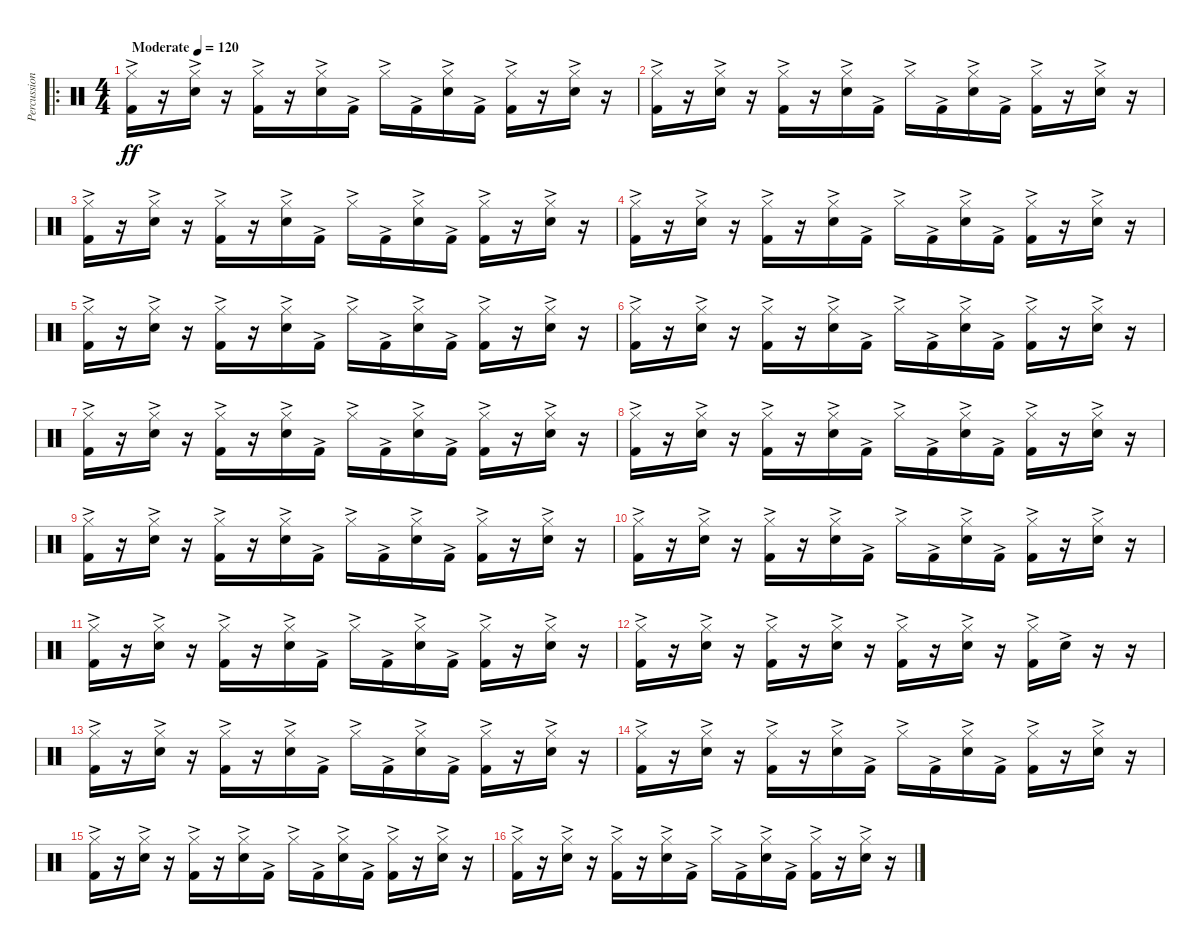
\track ("Percussion" "Percussion") {instrument percussion}
\staff {score}
\articulation defaults
\ro
\ts (4 4)
\tempo (120 "Moderate")
\clef neutral
\ks c
("Hi-Hat (closed)"{ac} "Kick (hit) 2"{ac}).16{dy ff} r.16 ("Hi-Hat (closed)"{ac} "Snare (hit) 2"{ac}).16 r.16 ("Hi-Hat (closed)"{ac} "Kick (hit) 2"{ac}).16 r.16 ("Hi-Hat (closed)"{ac} "Snare (hit) 2"{ac}).16 "Kick (hit) 2"{ac}.16 "Hi-Hat (closed)"{ac}.16 "Kick (hit) 2"{ac}.16 ("Hi-Hat (closed)"{ac} "Snare (hit) 2"{ac}).16 "Kick (hit) 2"{ac}.16 ("Hi-Hat (closed)"{ac} "Kick (hit) 2"{ac}).16 r.16 ("Hi-Hat (closed)"{ac} "Snare (hit) 2"{ac}).16 r.16 |
("Hi-Hat (closed)"{ac} "Kick (hit) 2"{ac}).16 r.16 ("Hi-Hat (closed)"{ac} "Snare (hit) 2"{ac}).16 r.16 ("Hi-Hat (closed)"{ac} "Kick (hit) 2"{ac}).16 r.16 ("Hi-Hat (closed)"{ac} "Snare (hit) 2"{ac}).16 "Kick (hit) 2"{ac}.16 "Hi-Hat (closed)"{ac}.16 "Kick (hit) 2"{ac}.16 ("Hi-Hat (closed)"{ac} "Snare (hit) 2"{ac}).16 "Kick (hit) 2"{ac}.16 ("Hi-Hat (closed)"{ac} "Kick (hit) 2"{ac}).16 r.16 ("Hi-Hat (closed)"{ac} "Snare (hit) 2"{ac}).16 r.16 |
("Hi-Hat (closed)"{ac} "Kick (hit) 2"{ac}).16 r.16 ("Hi-Hat (closed)"{ac} "Snare (hit) 2"{ac}).16 r.16 ("Hi-Hat (closed)"{ac} "Kick (hit) 2"{ac}).16 r.16 ("Hi-Hat (closed)"{ac} "Snare (hit) 2"{ac}).16 "Kick (hit) 2"{ac}.16 "Hi-Hat (closed)"{ac}.16 "Kick (hit) 2"{ac}.16 ("Hi-Hat (closed)"{ac} "Snare (hit) 2"{ac}).16 "Kick (hit) 2"{ac}.16 ("Hi-Hat (closed)"{ac} "Kick (hit) 2"{ac}).16 r.16 ("Hi-Hat (closed)"{ac} "Snare (hit) 2"{ac}).16 r.16 |
("Hi-Hat (closed)"{ac} "Kick (hit) 2"{ac}).16 r.16 ("Hi-Hat (closed)"{ac} "Snare (hit) 2"{ac}).16 r.16 ("Hi-Hat (closed)"{ac} "Kick (hit) 2"{ac}).16 r.16 ("Hi-Hat (closed)"{ac} "Snare (hit) 2"{ac}).16 "Kick (hit) 2"{ac}.16 "Hi-Hat (closed)"{ac}.16 "Kick (hit) 2"{ac}.16 ("Hi-Hat (closed)"{ac} "Snare (hit) 2"{ac}).16 "Kick (hit) 2"{ac}.16 ("Hi-Hat (closed)"{ac} "Kick (hit) 2"{ac}).16 r.16 ("Hi-Hat (closed)"{ac} "Snare (hit) 2"{ac}).16 r.16 |
("Hi-Hat (closed)"{ac} "Kick (hit) 2"{ac}).16 r.16 ("Hi-Hat (closed)"{ac} "Snare (hit) 2"{ac}).16 r.16 ("Hi-Hat (closed)"{ac} "Kick (hit) 2"{ac}).16 r.16 ("Hi-Hat (closed)"{ac} "Snare (hit) 2"{ac}).16 "Kick (hit) 2"{ac}.16 "Hi-Hat (closed)"{ac}.16 "Kick (hit) 2"{ac}.16 ("Hi-Hat (closed)"{ac} "Snare (hit) 2"{ac}).16 "Kick (hit) 2"{ac}.16 ("Hi-Hat (closed)"{ac} "Kick (hit) 2"{ac}).16 r.16 ("Hi-Hat (closed)"{ac} "Snare (hit) 2"{ac}).16 r.16 |
("Hi-Hat (closed)"{ac} "Kick (hit) 2"{ac}).16 r.16 ("Hi-Hat (closed)"{ac} "Snare (hit) 2"{ac}).16 r.16 ("Hi-Hat (closed)"{ac} "Kick (hit) 2"{ac}).16 r.16 ("Hi-Hat (closed)"{ac} "Snare (hit) 2"{ac}).16 "Kick (hit) 2"{ac}.16 "Hi-Hat (closed)"{ac}.16 "Kick (hit) 2"{ac}.16 ("Hi-Hat (closed)"{ac} "Snare (hit) 2"{ac}).16 "Kick (hit) 2"{ac}.16 ("Hi-Hat (closed)"{ac} "Kick (hit) 2"{ac}).16 r.16 ("Hi-Hat (closed)"{ac} "Snare (hit) 2"{ac}).16 r.16 |
("Hi-Hat (closed)"{ac} "Kick (hit) 2"{ac}).16 r.16 ("Hi-Hat (closed)"{ac} "Snare (hit) 2"{ac}).16 r.16 ("Hi-Hat (closed)"{ac} "Kick (hit) 2"{ac}).16 r.16 ("Hi-Hat (closed)"{ac} "Snare (hit) 2"{ac}).16 "Kick (hit) 2"{ac}.16 "Hi-Hat (closed)"{ac}.16 "Kick (hit) 2"{ac}.16 ("Hi-Hat (closed)"{ac} "Snare (hit) 2"{ac}).16 "Kick (hit) 2"{ac}.16 ("Hi-Hat (closed)"{ac} "Kick (hit) 2"{ac}).16 r.16 ("Hi-Hat (closed)"{ac} "Snare (hit) 2"{ac}).16 r.16 |
("Hi-Hat (closed)"{ac} "Kick (hit) 2"{ac}).16 r.16 ("Hi-Hat (closed)"{ac} "Snare (hit) 2"{ac}).16 r.16 ("Hi-Hat (closed)"{ac} "Kick (hit) 2"{ac}).16 r.16 ("Hi-Hat (closed)"{ac} "Snare (hit) 2"{ac}).16 "Kick (hit) 2"{ac}.16 "Hi-Hat (closed)"{ac}.16 "Kick (hit) 2"{ac}.16 ("Hi-Hat (closed)"{ac} "Snare (hit) 2"{ac}).16 "Kick (hit) 2"{ac}.16 ("Hi-Hat (closed)"{ac} "Kick (hit) 2"{ac}).16 r.16 ("Hi-Hat (closed)"{ac} "Snare (hit) 2"{ac}).16 r.16 |
("Hi-Hat (closed)"{ac} "Kick (hit) 2"{ac}).16 r.16 ("Hi-Hat (closed)"{ac} "Snare (hit) 2"{ac}).16 r.16 ("Hi-Hat (closed)"{ac} "Kick (hit) 2"{ac}).16 r.16 ("Hi-Hat (closed)"{ac} "Snare (hit) 2"{ac}).16 "Kick (hit) 2"{ac}.16 "Hi-Hat (closed)"{ac}.16 "Kick (hit) 2"{ac}.16 ("Hi-Hat (closed)"{ac} "Snare (hit) 2"{ac}).16 "Kick (hit) 2"{ac}.16 ("Hi-Hat (closed)"{ac} "Kick (hit) 2"{ac}).16 r.16 ("Hi-Hat (closed)"{ac} "Snare (hit) 2"{ac}).16 r.16 |
("Hi-Hat (closed)"{ac} "Kick (hit) 2"{ac}).16 r.16 ("Hi-Hat (closed)"{ac} "Snare (hit) 2"{ac}).16 r.16 ("Hi-Hat (closed)"{ac} "Kick (hit) 2"{ac}).16 r.16 ("Hi-Hat (closed)"{ac} "Snare (hit) 2"{ac}).16 "Kick (hit) 2"{ac}.16 "Hi-Hat (closed)"{ac}.16 "Kick (hit) 2"{ac}.16 ("Hi-Hat (closed)"{ac} "Snare (hit) 2"{ac}).16 "Kick (hit) 2"{ac}.16 ("Hi-Hat (closed)"{ac} "Kick (hit) 2"{ac}).16 r.16 ("Hi-Hat (closed)"{ac} "Snare (hit) 2"{ac}).16 r.16 |
("Hi-Hat (closed)"{ac} "Kick (hit) 2"{ac}).16 r.16 ("Hi-Hat (closed)"{ac} "Snare (hit) 2"{ac}).16 r.16 ("Hi-Hat (closed)"{ac} "Kick (hit) 2"{ac}).16 r.16 ("Hi-Hat (closed)"{ac} "Snare (hit) 2"{ac}).16 "Kick (hit) 2"{ac}.16 "Hi-Hat (closed)"{ac}.16 "Kick (hit) 2"{ac}.16 ("Hi-Hat (closed)"{ac} "Snare (hit) 2"{ac}).16 "Kick (hit) 2"{ac}.16 ("Hi-Hat (closed)"{ac} "Kick (hit) 2"{ac}).16 r.16 ("Hi-Hat (closed)"{ac} "Snare (hit) 2"{ac}).16 r.16 |
("Hi-Hat (closed)"{ac} "Kick (hit) 2"{ac}).16 r.16 ("Hi-Hat (closed)"{ac} "Snare (hit) 2"{ac}).16 r.16 ("Hi-Hat (closed)"{ac} "Kick (hit) 2"{ac}).16 r.16 ("Hi-Hat (closed)"{ac} "Snare (hit) 2"{ac}).16 r.16 ("Hi-Hat (closed)"{ac} "Kick (hit) 2"{ac}).16 r.16 ("Hi-Hat (closed)"{ac} "Snare (hit) 2"{ac}).16 r.16 ("Hi-Hat (closed)"{ac} "Kick (hit) 2"{ac}).16 "Snare (hit) 2"{ac}.16 r.16 r.16 |
("Hi-Hat (closed)"{ac} "Kick (hit) 2"{ac}).16 r.16 ("Hi-Hat (closed)"{ac} "Snare (hit) 2"{ac}).16 r.16 ("Hi-Hat (closed)"{ac} "Kick (hit) 2"{ac}).16 r.16 ("Hi-Hat (closed)"{ac} "Snare (hit) 2"{ac}).16 "Kick (hit) 2"{ac}.16 "Hi-Hat (closed)"{ac}.16 "Kick (hit) 2"{ac}.16 ("Hi-Hat (closed)"{ac} "Snare (hit) 2"{ac}).16 "Kick (hit) 2"{ac}.16 ("Hi-Hat (closed)"{ac} "Kick (hit) 2"{ac}).16 r.16 ("Hi-Hat (closed)"{ac} "Snare (hit) 2"{ac}).16 r.16 |
("Hi-Hat (closed)"{ac} "Kick (hit) 2"{ac}).16 r.16 ("Hi-Hat (closed)"{ac} "Snare (hit) 2"{ac}).16 r.16 ("Hi-Hat (closed)"{ac} "Kick (hit) 2"{ac}).16 r.16 ("Hi-Hat (closed)"{ac} "Snare (hit) 2"{ac}).16 "Kick (hit) 2"{ac}.16 "Hi-Hat (closed)"{ac}.16 "Kick (hit) 2"{ac}.16 ("Hi-Hat (closed)"{ac} "Snare (hit) 2"{ac}).16 "Kick (hit) 2"{ac}.16 ("Hi-Hat (closed)"{ac} "Kick (hit) 2"{ac}).16 r.16 ("Hi-Hat (closed)"{ac} "Snare (hit) 2"{ac}).16 r.16 |
("Hi-Hat (closed)"{ac} "Kick (hit) 2"{ac}).16 r.16 ("Hi-Hat (closed)"{ac} "Snare (hit) 2"{ac}).16 r.16 ("Hi-Hat (closed)"{ac} "Kick (hit) 2"{ac}).16 r.16 ("Hi-Hat (closed)"{ac} "Snare (hit) 2"{ac}).16 "Kick (hit) 2"{ac}.16 "Hi-Hat (closed)"{ac}.16 "Kick (hit) 2"{ac}.16 ("Hi-Hat (closed)"{ac} "Snare (hit) 2"{ac}).16 "Kick (hit) 2"{ac}.16 ("Hi-Hat (closed)"{ac} "Kick (hit) 2"{ac}).16 r.16 ("Hi-Hat (closed)"{ac} "Snare (hit) 2"{ac}).16 r.16 |
("Hi-Hat (closed)"{ac} "Kick (hit) 2"{ac}).16 r.16 ("Hi-Hat (closed)"{ac} "Snare (hit) 2"{ac}).16 r.16 ("Hi-Hat (closed)"{ac} "Kick (hit) 2"{ac}).16 r.16 ("Hi-Hat (closed)"{ac} "Snare (hit) 2"{ac}).16 "Kick (hit) 2"{ac}.16 "Hi-Hat (closed)"{ac}.16 "Kick (hit) 2"{ac}.16 ("Hi-Hat (closed)"{ac} "Snare (hit) 2"{ac}).16 "Kick (hit) 2"{ac}.16 ("Hi-Hat (closed)"{ac} "Kick (hit) 2"{ac}).16 r.16 ("Hi-Hat (closed)"{ac} "Snare (hit) 2"{ac}).16 r.16
